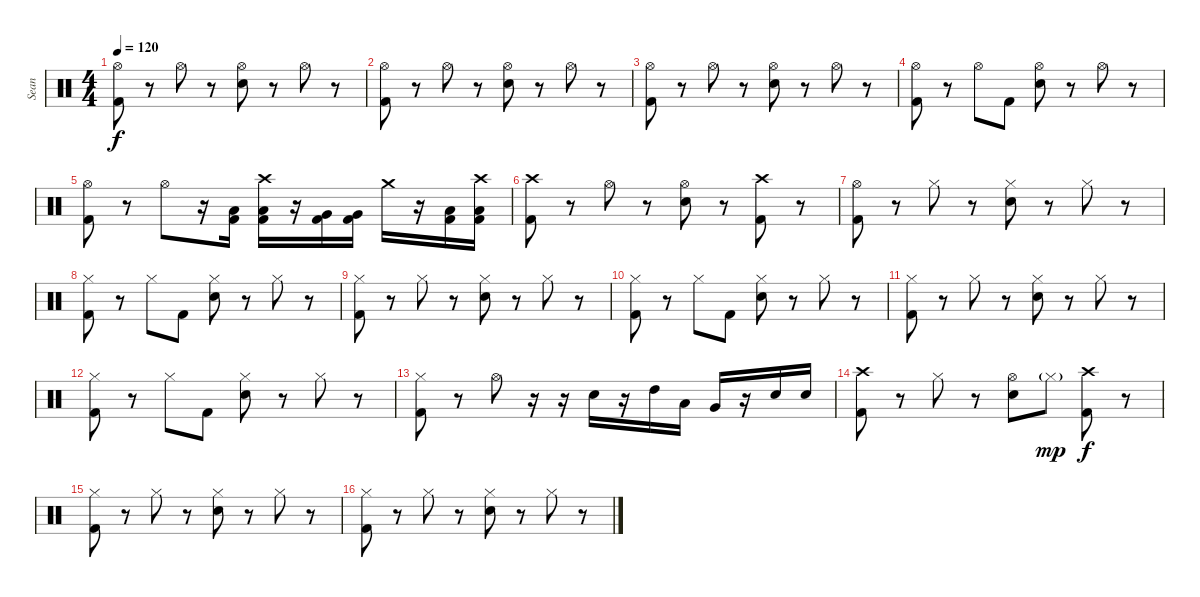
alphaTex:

\track ("Sean" "Sean") {instrument percussion}
\staff {score}
\articulation defaults
\ts (4 4)
\tempo 120
\clef neutral
\ks c
("Hi-Hat (open)" "Kick (hit) 2").8{dy f} r.8 "Hi-Hat (open)".8 r.8 ("Hi-Hat (open)" "Snare (hit) 2").8 r.8 "Hi-Hat (open)".8 r.8 |
("Hi-Hat (open)" "Kick (hit) 2").8 r.8 "Hi-Hat (open)".8 r.8 ("Hi-Hat (open)" "Snare (hit) 2").8 r.8 "Hi-Hat (open)".8 r.8 |
("Hi-Hat (open)" "Kick (hit) 2").8 r.8 "Hi-Hat (open)".8 r.8 ("Hi-Hat (open)" "Snare (hit) 2").8 r.8 "Hi-Hat (open)".8 r.8 |
("Hi-Hat (open)" "Kick (hit) 2").8 r.8 "Hi-Hat (open)".8 "Kick (hit) 2".8 ("Hi-Hat (open)" "Snare (hit) 2").8 r.8 "Hi-Hat (open)".8 r.8 |
("Hi-Hat (open)" "Kick (hit) 2").8 r.8 "Hi-Hat (open)".8 r.16 ("Low Tom (hit)" "Kick (hit) 2").16 ("Crash high (hit)" "Low Tom (hit)" "Kick (hit) 2").16 r.16 ("Very Low Tom (hit)" "Kick (hit) 2").16 ("Very Low Tom (hit)" "Kick (hit) 2").16 "Crash medium (hit)".16 r.16 ("Low Floor Tom (hit)" "Kick (hit) 2").16 ("Crash high (hit)" "Low Floor Tom (hit)" "Kick (hit) 2").16 |
("Crash high (hit)" "Kick (hit) 2").8 r.8 "Hi-Hat (open)".8 r.8 ("Hi-Hat (open)" "Snare (hit) 2").8 r.8 ("Crash high (hit)" "Kick (hit) 2").8 r.8 |
("Hi-Hat (open)" "Kick (hit) 2").8 r.8 "Hi-Hat (closed)".8 r.8 ("Hi-Hat (closed)" "Snare (hit) 2").8 r.8 "Hi-Hat (closed)".8 r.8 |
("Hi-Hat (closed)" "Kick (hit) 2").8 r.8 "Hi-Hat (closed)".8 "Kick (hit) 2".8 ("Hi-Hat (closed)" "Snare (hit) 2").8 r.8 "Hi-Hat (closed)".8 r.8 |
("Hi-Hat (closed)" "Kick (hit) 2").8 r.8 "Hi-Hat (closed)".8 r.8 ("Hi-Hat (closed)" "Snare (hit) 2").8 r.8 "Hi-Hat (closed)".8 r.8 |
("Hi-Hat (closed)" "Kick (hit) 2").8 r.8 "Hi-Hat (closed)".8 "Kick (hit) 2".8 ("Hi-Hat (closed)" "Snare (hit) 2").8 r.8 "Hi-Hat (closed)".8 r.8 |
("Hi-Hat (closed)" "Kick (hit) 2").8 r.8 "Hi-Hat (closed)".8 r.8 ("Hi-Hat (closed)" "Snare (hit) 2").8 r.8 "Hi-Hat (closed)".8 r.8 |
("Hi-Hat (closed)" "Kick (hit) 2").8 r.8 "Hi-Hat (closed)".8 "Kick (hit) 2".8 ("Hi-Hat (closed)" "Snare (hit) 2").8 r.8 "Hi-Hat (closed)".8 r.8 |
("Hi-Hat (closed)" "Kick (hit) 2").8 r.8 "Hi-Hat (open)".8 r.16 r.16 "Snare (hit) 2".16 r.16 "High Tom (hit)".16 "Low Tom (hit)".16 "Very Low Tom (hit)".16 r.16 "Snare (hit) 2".16 "Snare (hit) 2".16 |
("Crash high (hit)" "Kick (hit) 2").8 r.8 "Hi-Hat (closed)".8 r.8 ("Hi-Hat (open)" "Snare (hit) 2").8 "Hi-Hat (closed)"{g}.8{dy mp} ("Crash high (hit)" "Kick (hit) 2").8{dy f} r.8 |
("Hi-Hat (closed)" "Kick (hit) 2").8 r.8 "Hi-Hat (closed)".8 r.8 ("Hi-Hat (closed)" "Snare (hit) 2").8 r.8 "Hi-Hat (closed)".8 r.8 |
("Hi-Hat (closed)" "Kick (hit) 2").8 r.8 "Hi-Hat (closed)".8 r.8 ("Hi-Hat (closed)" "Snare (hit) 2").8 r.8 "Hi-Hat (closed)".8 r.8
